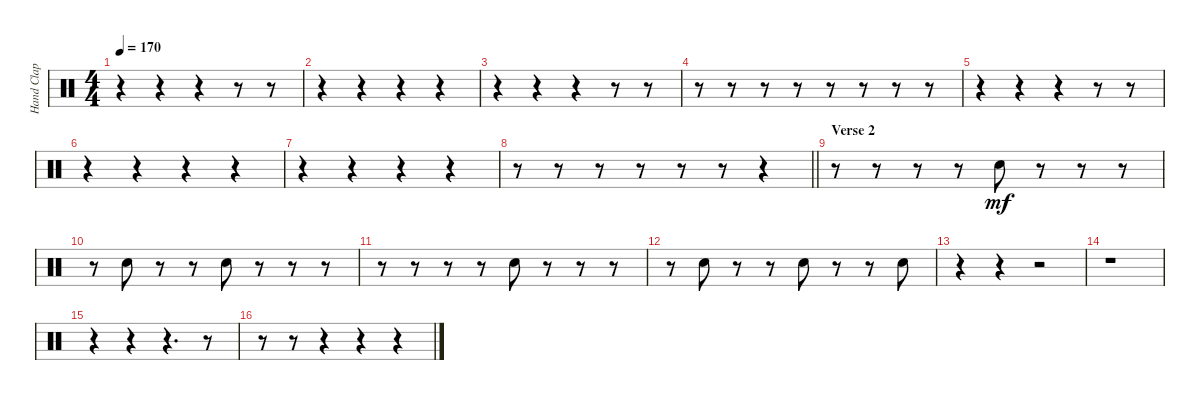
\track ("Hand Clap" "Hand Clap") {instrument percussion}
\staff {score}
\articulation defaults
\ts (4 4)
\tempo 170
\clef neutral
\ks c
r.4{dy mf} r.4 r.4 r.8 r.8 |
r.4 r.4 r.4 r.4 |
r.4 r.4 r.4 r.8 r.8 |
r.8 r.8 r.8 r.8 r.8 r.8 r.8 r.8 |
r.4 r.4 r.4 r.8 r.8 |
r.4 r.4 r.4 r.4 |
r.4 r.4 r.4 r.4 |
\barLineRight lightlight
r.8 r.8 r.8 r.8 r.8 r.8 r.4 |
\section ("" "Verse 2")
r.8 r.8 r.8 r.8 "Hand Clap (hit)".8 r.8 r.8 r.8 |
r.8 "Hand Clap (hit)".8 r.8 r.8 "Hand Clap (hit)".8 r.8 r.8 r.8 |
r.8 r.8 r.8 r.8 "Hand Clap (hit)".8 r.8 r.8 r.8 |
r.8 "Hand Clap (hit)".8 r.8 r.8 "Hand Clap (hit)".8 r.8 r.8 "Hand Clap (hit)".8 |
r.4 r.4 r.2 |
r.1 |
r.4 r.4 r.4{d} r.8 |
r.8 r.8 r.4 r.4 r.4
